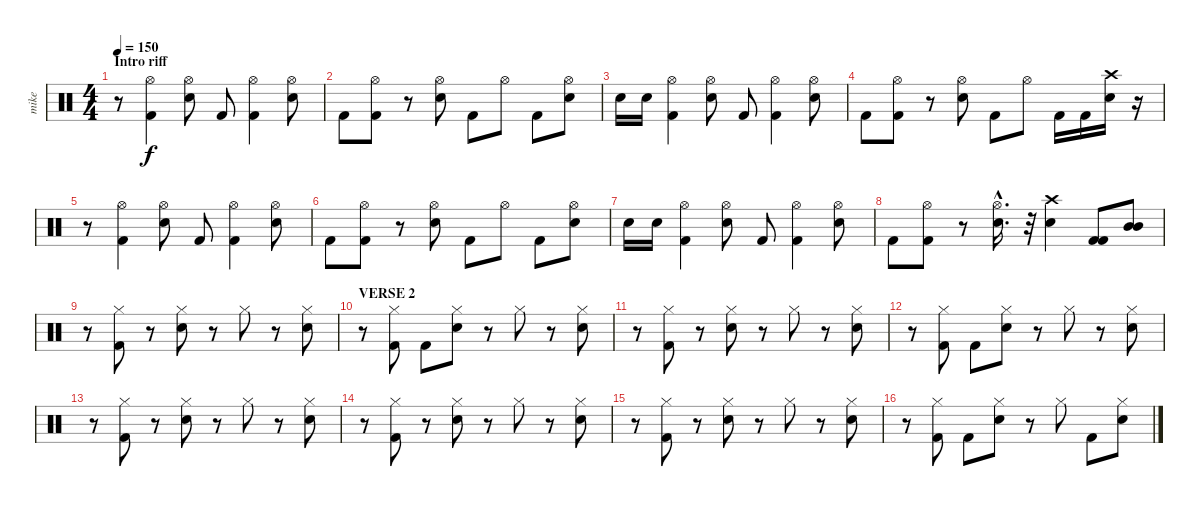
\track ("mike" "mike") {instrument percussion}
\staff {score}
\articulation defaults
\ts (4 4)
\section ("" "Intro riff")
\tempo 150
\clef neutral
\ks c
r.8{dy f} ("Kick (hit) 2" "Hi-Hat (open)").4 ("Electric Snare (hit)" "Hi-Hat (open)").8 "Kick (hit) 2".8 ("Kick (hit) 2" "Hi-Hat (open)").4 ("Electric Snare (hit)" "Hi-Hat (open)").8 |
"Kick (hit) 2".8 ("Kick (hit) 2" "Hi-Hat (open)").8 r.8 ("Electric Snare (hit)" "Hi-Hat (open)").8 "Kick (hit) 2".8 "Hi-Hat (open)".8 "Kick (hit) 2".8 ("Electric Snare (hit)" "Hi-Hat (open)").8 |
"Electric Snare (hit)".16 "Electric Snare (hit)".16 ("Kick (hit) 2" "Hi-Hat (open)").4 ("Electric Snare (hit)" "Hi-Hat (open)").8 "Kick (hit) 2".8 ("Kick (hit) 2" "Hi-Hat (open)").4 ("Electric Snare (hit)" "Hi-Hat (open)").8 |
"Kick (hit) 2".8 ("Kick (hit) 2" "Hi-Hat (open)").8 r.8 ("Electric Snare (hit)" "Hi-Hat (open)").8 "Kick (hit) 2".8 "Hi-Hat (open)".8 "Kick (hit) 2".16 "Kick (hit) 2".16 ("Crash high (hit)" "Electric Snare (hit)").16 r.16 |
r.8 ("Kick (hit) 2" "Hi-Hat (open)").4 ("Electric Snare (hit)" "Hi-Hat (open)").8 "Kick (hit) 2".8 ("Kick (hit) 2" "Hi-Hat (open)").4 ("Electric Snare (hit)" "Hi-Hat (open)").8 |
"Kick (hit) 2".8 ("Kick (hit) 2" "Hi-Hat (open)").8 r.8 ("Electric Snare (hit)" "Hi-Hat (open)").8 "Kick (hit) 2".8 "Hi-Hat (open)".8 "Kick (hit) 2".8 ("Electric Snare (hit)" "Hi-Hat (open)").8 |
"Electric Snare (hit)".16 "Electric Snare (hit)".16 ("Kick (hit) 2" "Hi-Hat (open)").4 ("Electric Snare (hit)" "Hi-Hat (open)").8 "Kick (hit) 2".8 ("Kick (hit) 2" "Hi-Hat (open)").4 ("Electric Snare (hit)" "Hi-Hat (open)").8 |
"Kick (hit) 2".8 ("Kick (hit) 2" "Hi-Hat (open)").8 r.8 ("Electric Snare (hit)"{hac} "Hi-Hat (open)"{hac}).16{d} r.32 ("Electric Snare (hit)" "Crash high (hit)").4 ("Kick (hit) 2" "Kick (hit) 2").8 ("Mid Tom (hit)" "Mid Tom (hit)").8 |
r.8 ("Hi-Hat (closed)" "Kick (hit) 2").8 r.8 ("Hi-Hat (closed)" "Electric Snare (hit)").8 r.8 "Hi-Hat (closed)".8 r.8 ("Hi-Hat (closed)" "Electric Snare (hit)").8 |
\section ("" "VERSE 2")
r.8 ("Hi-Hat (closed)" "Kick (hit) 2").8 "Kick (hit) 2".8 ("Hi-Hat (closed)" "Electric Snare (hit)").8 r.8 "Hi-Hat (closed)".8 r.8 ("Hi-Hat (closed)" "Electric Snare (hit)").8 |
r.8 ("Hi-Hat (closed)" "Kick (hit) 2").8 r.8 ("Hi-Hat (closed)" "Electric Snare (hit)").8 r.8 "Hi-Hat (closed)".8 r.8 ("Hi-Hat (closed)" "Electric Snare (hit)").8 |
r.8 ("Hi-Hat (closed)" "Kick (hit) 2").8 "Kick (hit) 2".8 ("Hi-Hat (closed)" "Electric Snare (hit)").8 r.8 "Hi-Hat (closed)".8 r.8 ("Hi-Hat (closed)" "Electric Snare (hit)").8 |
r.8 ("Hi-Hat (closed)" "Kick (hit) 2").8 r.8 ("Hi-Hat (closed)" "Electric Snare (hit)").8 r.8 "Hi-Hat (closed)".8 r.8 ("Hi-Hat (closed)" "Electric Snare (hit)").8 |
r.8 ("Hi-Hat (closed)" "Kick (hit) 2").8 r.8 ("Hi-Hat (closed)" "Electric Snare (hit)").8 r.8 "Hi-Hat (closed)".8 r.8 ("Hi-Hat (closed)" "Electric Snare (hit)").8 |
r.8 ("Hi-Hat (closed)" "Kick (hit) 2").8 r.8 ("Hi-Hat (closed)" "Electric Snare (hit)").8 r.8 "Hi-Hat (closed)".8 r.8 ("Hi-Hat (closed)" "Electric Snare (hit)").8 |
r.8 ("Hi-Hat (closed)" "Kick (hit) 2").8 "Kick (hit) 2".8 ("Hi-Hat (closed)" "Electric Snare (hit)").8 r.8 "Hi-Hat (closed)".8 "Kick (hit) 2".8 ("Hi-Hat (closed)" "Electric Snare (hit)").8
